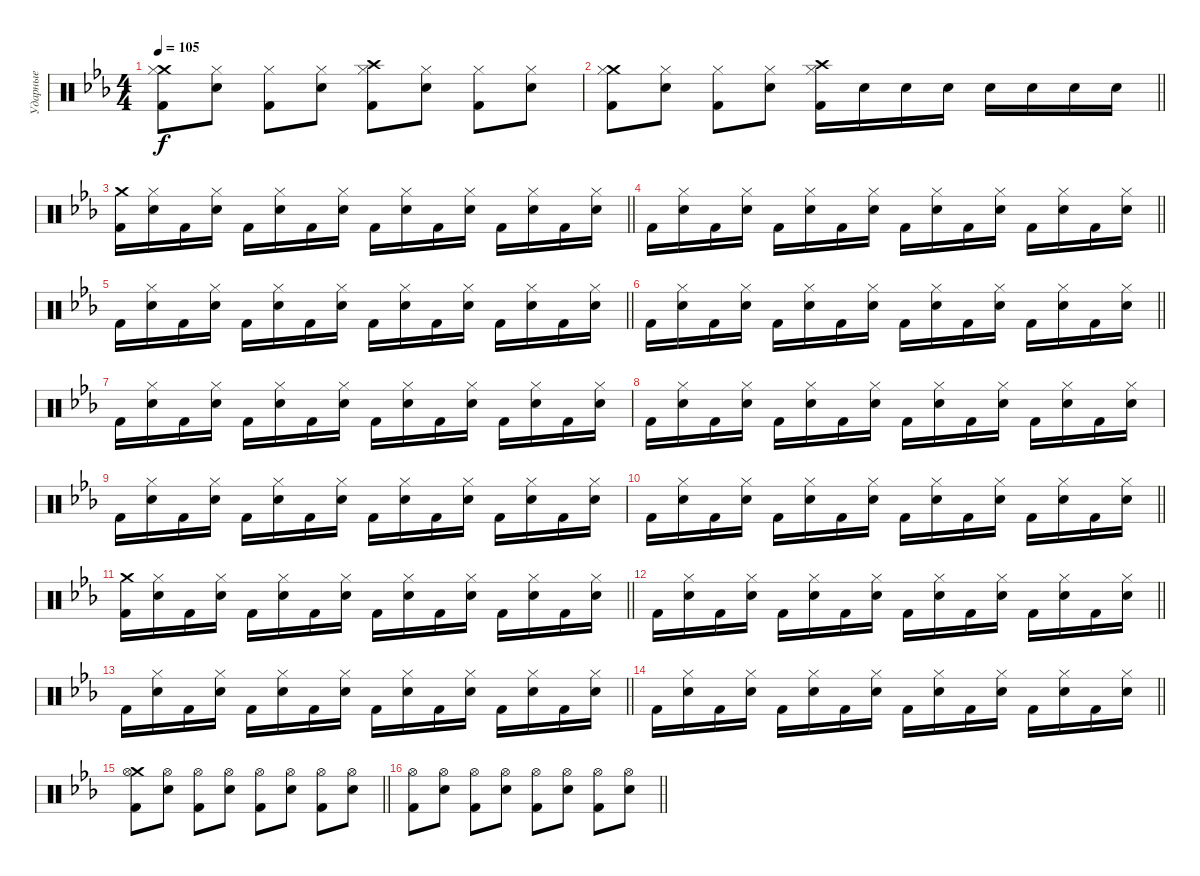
\track ("Ударные" "Ударные") {instrument percussion}
\staff {score}
\articulation defaults
\ts (4 4)
\tempo 105
\clef neutral
\ks cminor
("Crash medium (hit)" "Kick (hit) 2" "Hi-Hat (closed)").8{dy f} ("Electric Snare (hit)" "Hi-Hat (closed)").8 ("Kick (hit) 2" "Hi-Hat (closed)").8 ("Electric Snare (hit)" "Hi-Hat (closed)").8 ("Crash high (hit)" "Kick (hit) 2" "Hi-Hat (closed)").8 ("Electric Snare (hit)" "Hi-Hat (closed)").8 ("Kick (hit) 2" "Hi-Hat (closed)").8 ("Electric Snare (hit)" "Hi-Hat (closed)").8 |
\barLineRight lightlight
("Crash medium (hit)" "Kick (hit) 2" "Hi-Hat (closed)").8 ("Electric Snare (hit)" "Hi-Hat (closed)").8 ("Kick (hit) 2" "Hi-Hat (closed)").8 ("Electric Snare (hit)" "Hi-Hat (closed)").8 ("Crash high (hit)" "Kick (hit) 2" "Hi-Hat (closed)").16 "Electric Snare (hit)".16 "Electric Snare (hit)".16 "Electric Snare (hit)".16 "Electric Snare (hit)".16 "Electric Snare (hit)".16 "Electric Snare (hit)".16 "Electric Snare (hit)".16 |
\section ("" "")
\barLineRight lightlight
("Crash medium (hit)" "Kick (hit) 2").16 ("Electric Snare (hit)" "Hi-Hat (closed)").16 "Kick (hit) 2".16 ("Electric Snare (hit)" "Hi-Hat (closed)").16 "Kick (hit) 2".16 ("Electric Snare (hit)" "Hi-Hat (closed)").16 "Kick (hit) 2".16 ("Electric Snare (hit)" "Hi-Hat (closed)").16 "Kick (hit) 2".16 ("Electric Snare (hit)" "Hi-Hat (closed)").16 "Kick (hit) 2".16 ("Electric Snare (hit)" "Hi-Hat (closed)").16 "Kick (hit) 2".16 ("Electric Snare (hit)" "Hi-Hat (closed)").16 "Kick (hit) 2".16 ("Electric Snare (hit)" "Hi-Hat (closed)").16 |
\barLineRight lightlight "Kick (hit) 2".16
("Electric Snare (hit)" "Hi-Hat (closed)").16 "Kick (hit) 2".16 ("Electric Snare (hit)" "Hi-Hat (closed)").16 "Kick (hit) 2".16 ("Electric Snare (hit)" "Hi-Hat (closed)").16 "Kick (hit) 2".16 ("Electric Snare (hit)" "Hi-Hat (closed)").16 "Kick (hit) 2".16 ("Electric Snare (hit)" "Hi-Hat (closed)").16 "Kick (hit) 2".16 ("Electric Snare (hit)" "Hi-Hat (closed)").16 "Kick (hit) 2".16 ("Electric Snare (hit)" "Hi-Hat (closed)").16 "Kick (hit) 2".16 ("Electric Snare (hit)" "Hi-Hat (closed)").16 |
\barLineRight lightlight "Kick (hit) 2".16
("Electric Snare (hit)" "Hi-Hat (closed)").16 "Kick (hit) 2".16 ("Electric Snare (hit)" "Hi-Hat (closed)").16 "Kick (hit) 2".16 ("Electric Snare (hit)" "Hi-Hat (closed)").16 "Kick (hit) 2".16 ("Electric Snare (hit)" "Hi-Hat (closed)").16 "Kick (hit) 2".16 ("Electric Snare (hit)" "Hi-Hat (closed)").16 "Kick (hit) 2".16 ("Electric Snare (hit)" "Hi-Hat (closed)").16 "Kick (hit) 2".16 ("Electric Snare (hit)" "Hi-Hat (closed)").16 "Kick (hit) 2".16 ("Electric Snare (hit)" "Hi-Hat (closed)").16 |
\barLineRight lightlight "Kick (hit) 2".16
("Electric Snare (hit)" "Hi-Hat (closed)").16 "Kick (hit) 2".16 ("Electric Snare (hit)" "Hi-Hat (closed)").16 "Kick (hit) 2".16 ("Electric Snare (hit)" "Hi-Hat (closed)").16 "Kick (hit) 2".16 ("Electric Snare (hit)" "Hi-Hat (closed)").16 "Kick (hit) 2".16 ("Electric Snare (hit)" "Hi-Hat (closed)").16 "Kick (hit) 2".16 ("Electric Snare (hit)" "Hi-Hat (closed)").16 "Kick (hit) 2".16 ("Electric Snare (hit)" "Hi-Hat (closed)").16 "Kick (hit) 2".16 ("Electric Snare (hit)" "Hi-Hat (closed)").16 |
\section ("" "")
"Kick (hit) 2".16 ("Electric Snare (hit)" "Hi-Hat (closed)").16 "Kick (hit) 2".16 ("Electric Snare (hit)" "Hi-Hat (closed)").16 "Kick (hit) 2".16 ("Electric Snare (hit)" "Hi-Hat (closed)").16 "Kick (hit) 2".16 ("Electric Snare (hit)" "Hi-Hat (closed)").16 "Kick (hit) 2".16 ("Electric Snare (hit)" "Hi-Hat (closed)").16 "Kick (hit) 2".16 ("Electric Snare (hit)" "Hi-Hat (closed)").16 "Kick (hit) 2".16 ("Electric Snare (hit)" "Hi-Hat (closed)").16 "Kick (hit) 2".16 ("Electric Snare (hit)" "Hi-Hat (closed)").16 |
"Kick (hit) 2".16 ("Electric Snare (hit)" "Hi-Hat (closed)").16 "Kick (hit) 2".16 ("Electric Snare (hit)" "Hi-Hat (closed)").16 "Kick (hit) 2".16 ("Electric Snare (hit)" "Hi-Hat (closed)").16 "Kick (hit) 2".16 ("Electric Snare (hit)" "Hi-Hat (closed)").16 "Kick (hit) 2".16 ("Electric Snare (hit)" "Hi-Hat (closed)").16 "Kick (hit) 2".16 ("Electric Snare (hit)" "Hi-Hat (closed)").16 "Kick (hit) 2".16 ("Electric Snare (hit)" "Hi-Hat (closed)").16 "Kick (hit) 2".16 ("Electric Snare (hit)" "Hi-Hat (closed)").16 |
"Kick (hit) 2".16 ("Electric Snare (hit)" "Hi-Hat (closed)").16 "Kick (hit) 2".16 ("Electric Snare (hit)" "Hi-Hat (closed)").16 "Kick (hit) 2".16 ("Electric Snare (hit)" "Hi-Hat (closed)").16 "Kick (hit) 2".16 ("Electric Snare (hit)" "Hi-Hat (closed)").16 "Kick (hit) 2".16 ("Electric Snare (hit)" "Hi-Hat (closed)").16 "Kick (hit) 2".16 ("Electric Snare (hit)" "Hi-Hat (closed)").16 "Kick (hit) 2".16 ("Electric Snare (hit)" "Hi-Hat (closed)").16 "Kick (hit) 2".16 ("Electric Snare (hit)" "Hi-Hat (closed)").16 |
\barLineRight lightlight "Kick (hit) 2".16
("Electric Snare (hit)" "Hi-Hat (closed)").16 "Kick (hit) 2".16 ("Electric Snare (hit)" "Hi-Hat (closed)").16 "Kick (hit) 2".16 ("Electric Snare (hit)" "Hi-Hat (closed)").16 "Kick (hit) 2".16 ("Electric Snare (hit)" "Hi-Hat (closed)").16 "Kick (hit) 2".16 ("Electric Snare (hit)" "Hi-Hat (closed)").16 "Kick (hit) 2".16 ("Electric Snare (hit)" "Hi-Hat (closed)").16 "Kick (hit) 2".16 ("Electric Snare (hit)" "Hi-Hat (closed)").16 "Kick (hit) 2".16 ("Electric Snare (hit)" "Hi-Hat (closed)").16 |
\barLineRight lightlight
("Crash medium (hit)" "Kick (hit) 2").16 ("Electric Snare (hit)" "Hi-Hat (closed)").16 "Kick (hit) 2".16 ("Electric Snare (hit)" "Hi-Hat (closed)").16 "Kick (hit) 2".16 ("Electric Snare (hit)" "Hi-Hat (closed)").16 "Kick (hit) 2".16 ("Electric Snare (hit)" "Hi-Hat (closed)").16 "Kick (hit) 2".16 ("Electric Snare (hit)" "Hi-Hat (closed)").16 "Kick (hit) 2".16 ("Electric Snare (hit)" "Hi-Hat (closed)").16 "Kick (hit) 2".16 ("Electric Snare (hit)" "Hi-Hat (closed)").16 "Kick (hit) 2".16 ("Electric Snare (hit)" "Hi-Hat (closed)").16 |
\barLineRight lightlight "Kick (hit) 2".16
("Electric Snare (hit)" "Hi-Hat (closed)").16 "Kick (hit) 2".16 ("Electric Snare (hit)" "Hi-Hat (closed)").16 "Kick (hit) 2".16 ("Electric Snare (hit)" "Hi-Hat (closed)").16 "Kick (hit) 2".16 ("Electric Snare (hit)" "Hi-Hat (closed)").16 "Kick (hit) 2".16 ("Electric Snare (hit)" "Hi-Hat (closed)").16 "Kick (hit) 2".16 ("Electric Snare (hit)" "Hi-Hat (closed)").16 "Kick (hit) 2".16 ("Electric Snare (hit)" "Hi-Hat (closed)").16 "Kick (hit) 2".16 ("Electric Snare (hit)" "Hi-Hat (closed)").16 |
\barLineRight lightlight "Kick (hit) 2".16
("Electric Snare (hit)" "Hi-Hat (closed)").16 "Kick (hit) 2".16 ("Electric Snare (hit)" "Hi-Hat (closed)").16 "Kick (hit) 2".16 ("Electric Snare (hit)" "Hi-Hat (closed)").16 "Kick (hit) 2".16 ("Electric Snare (hit)" "Hi-Hat (closed)").16 "Kick (hit) 2".16 ("Electric Snare (hit)" "Hi-Hat (closed)").16 "Kick (hit) 2".16 ("Electric Snare (hit)" "Hi-Hat (closed)").16 "Kick (hit) 2".16 ("Electric Snare (hit)" "Hi-Hat (closed)").16 "Kick (hit) 2".16 ("Electric Snare (hit)" "Hi-Hat (closed)").16 |
\barLineRight lightlight "Kick (hit) 2".16
("Electric Snare (hit)" "Hi-Hat (closed)").16 "Kick (hit) 2".16 ("Electric Snare (hit)" "Hi-Hat (closed)").16 "Kick (hit) 2".16 ("Electric Snare (hit)" "Hi-Hat (closed)").16 "Kick (hit) 2".16 ("Electric Snare (hit)" "Hi-Hat (closed)").16 "Kick (hit) 2".16 ("Electric Snare (hit)" "Hi-Hat (closed)").16 "Kick (hit) 2".16 ("Electric Snare (hit)" "Hi-Hat (closed)").16 "Kick (hit) 2".16 ("Electric Snare (hit)" "Hi-Hat (closed)").16 "Kick (hit) 2".16 ("Electric Snare (hit)" "Hi-Hat (closed)").16 |
\section ("" "")
\barLineRight lightlight
("Crash medium (hit)" "Kick (hit) 2" "Hi-Hat (open)").8 ("Electric Snare (hit)" "Hi-Hat (open)").8 ("Kick (hit) 2" "Hi-Hat (open)").8 ("Electric Snare (hit)" "Hi-Hat (open)").8 ("Kick (hit) 2" "Hi-Hat (open)").8 ("Electric Snare (hit)" "Hi-Hat (open)").8 ("Kick (hit) 2" "Hi-Hat (open)").8 ("Electric Snare (hit)" "Hi-Hat (open)").8 |
\barLineRight lightlight
("Kick (hit) 2" "Hi-Hat (open)").8 ("Electric Snare (hit)" "Hi-Hat (open)").8 ("Kick (hit) 2" "Hi-Hat (open)").8 ("Electric Snare (hit)" "Hi-Hat (open)").8 ("Kick (hit) 2" "Hi-Hat (open)").8 ("Electric Snare (hit)" "Hi-Hat (open)").8 ("Kick (hit) 2" "Hi-Hat (open)").8 ("Electric Snare (hit)" "Hi-Hat (open)").8
